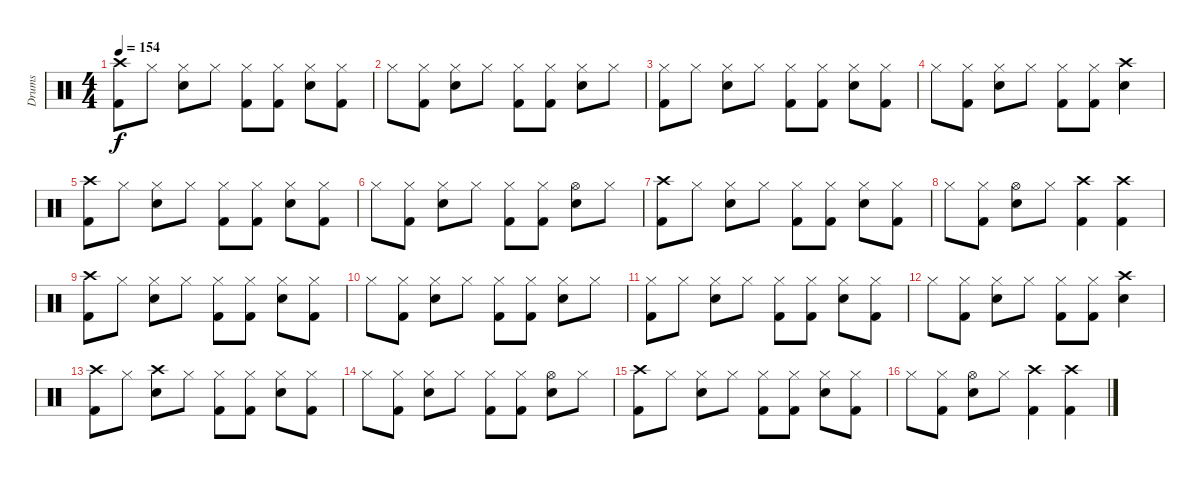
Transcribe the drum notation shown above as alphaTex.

\track ("Drums" "Drums") {instrument percussion}
\staff {score}
\articulation defaults
\ts (4 4)
\tempo 154
\clef neutral
\ks c
("Crash high (hit)" "Kick (hit) 2").8{dy f} "Hi-Hat (closed)".8 ("Hi-Hat (closed)" "Snare (hit) 2").8 "Hi-Hat (closed)".8 ("Hi-Hat (closed)" "Kick (hit) 2").8 ("Hi-Hat (closed)" "Kick (hit) 2").8 ("Hi-Hat (closed)" "Snare (hit) 2").8 ("Hi-Hat (closed)" "Kick (hit) 2").8 |
"Hi-Hat (closed)".8 ("Hi-Hat (closed)" "Kick (hit) 2").8 ("Hi-Hat (closed)" "Snare (hit) 2").8 "Hi-Hat (closed)".8 ("Hi-Hat (closed)" "Kick (hit) 2").8 ("Hi-Hat (closed)" "Kick (hit) 2").8 ("Hi-Hat (closed)" "Snare (hit) 2").8 "Hi-Hat (closed)".8 |
("Hi-Hat (closed)" "Kick (hit) 2").8 "Hi-Hat (closed)".8 ("Hi-Hat (closed)" "Snare (hit) 2").8 "Hi-Hat (closed)".8 ("Hi-Hat (closed)" "Kick (hit) 2").8 ("Hi-Hat (closed)" "Kick (hit) 2").8 ("Hi-Hat (closed)" "Snare (hit) 2").8 ("Hi-Hat (closed)" "Kick (hit) 2").8 |
"Hi-Hat (closed)".8 ("Hi-Hat (closed)" "Kick (hit) 2").8 ("Hi-Hat (closed)" "Snare (hit) 2").8 "Hi-Hat (closed)".8 ("Hi-Hat (closed)" "Kick (hit) 2").8 ("Hi-Hat (closed)" "Kick (hit) 2").8 ("Crash high (hit)" "Snare (hit) 2").4 |
("Crash high (hit)" "Kick (hit) 2").8 "Hi-Hat (closed)".8 ("Hi-Hat (closed)" "Snare (hit) 2").8 "Hi-Hat (closed)".8 ("Hi-Hat (closed)" "Kick (hit) 2").8 ("Hi-Hat (closed)" "Kick (hit) 2").8 ("Hi-Hat (closed)" "Snare (hit) 2").8 ("Hi-Hat (closed)" "Kick (hit) 2").8 |
"Hi-Hat (closed)".8 ("Hi-Hat (closed)" "Kick (hit) 2").8 ("Hi-Hat (closed)" "Snare (hit) 2").8 "Hi-Hat (closed)".8 ("Hi-Hat (closed)" "Kick (hit) 2").8 ("Hi-Hat (closed)" "Kick (hit) 2").8 ("Hi-Hat (open)" "Snare (hit) 2").8 "Hi-Hat (closed)".8 |
("Crash high (hit)" "Kick (hit) 2").8 "Hi-Hat (closed)".8 ("Hi-Hat (closed)" "Snare (hit) 2").8 "Hi-Hat (closed)".8 ("Hi-Hat (closed)" "Kick (hit) 2").8 ("Hi-Hat (closed)" "Kick (hit) 2").8 ("Hi-Hat (closed)" "Snare (hit) 2").8 ("Hi-Hat (closed)" "Kick (hit) 2").8 |
"Hi-Hat (closed)".8 ("Hi-Hat (closed)" "Kick (hit) 2").8 ("Hi-Hat (open)" "Snare (hit) 2").8 "Hi-Hat (closed)".8 ("Crash high (hit)" "Kick (hit) 2").4 ("Crash high (hit)" "Kick (hit) 2").4 |
("Crash high (hit)" "Kick (hit) 2").8 "Hi-Hat (closed)".8 ("Hi-Hat (closed)" "Snare (hit) 2").8 "Hi-Hat (closed)".8 ("Hi-Hat (closed)" "Kick (hit) 2").8 ("Hi-Hat (closed)" "Kick (hit) 2").8 ("Hi-Hat (closed)" "Snare (hit) 2").8 ("Hi-Hat (closed)" "Kick (hit) 2").8 |
"Hi-Hat (closed)".8 ("Hi-Hat (closed)" "Kick (hit) 2").8 ("Hi-Hat (closed)" "Snare (hit) 2").8 "Hi-Hat (closed)".8 ("Hi-Hat (closed)" "Kick (hit) 2").8 ("Hi-Hat (closed)" "Kick (hit) 2").8 ("Hi-Hat (closed)" "Snare (hit) 2").8 "Hi-Hat (closed)".8 |
("Hi-Hat (closed)" "Kick (hit) 2").8 "Hi-Hat (closed)".8 ("Hi-Hat (closed)" "Snare (hit) 2").8 "Hi-Hat (closed)".8 ("Hi-Hat (closed)" "Kick (hit) 2").8 ("Hi-Hat (closed)" "Kick (hit) 2").8 ("Hi-Hat (closed)" "Snare (hit) 2").8 ("Hi-Hat (closed)" "Kick (hit) 2").8 |
"Hi-Hat (closed)".8 ("Hi-Hat (closed)" "Kick (hit) 2").8 ("Hi-Hat (closed)" "Snare (hit) 2").8 "Hi-Hat (closed)".8 ("Hi-Hat (closed)" "Kick (hit) 2").8 ("Hi-Hat (closed)" "Kick (hit) 2").8 ("Crash high (hit)" "Snare (hit) 2").4 |
("Crash high (hit)" "Kick (hit) 2").8 "Hi-Hat (closed)".8 ("Crash high (hit)" "Snare (hit) 2").8 "Hi-Hat (closed)".8 ("Hi-Hat (closed)" "Kick (hit) 2").8 ("Hi-Hat (closed)" "Kick (hit) 2").8 ("Hi-Hat (closed)" "Snare (hit) 2").8 ("Hi-Hat (closed)" "Kick (hit) 2").8 |
"Hi-Hat (closed)".8 ("Hi-Hat (closed)" "Kick (hit) 2").8 ("Hi-Hat (closed)" "Snare (hit) 2").8 "Hi-Hat (closed)".8 ("Hi-Hat (closed)" "Kick (hit) 2").8 ("Hi-Hat (closed)" "Kick (hit) 2").8 ("Hi-Hat (open)" "Snare (hit) 2").8 "Hi-Hat (closed)".8 |
("Crash high (hit)" "Kick (hit) 2").8 "Hi-Hat (closed)".8 ("Hi-Hat (closed)" "Snare (hit) 2").8 "Hi-Hat (closed)".8 ("Hi-Hat (closed)" "Kick (hit) 2").8 ("Hi-Hat (closed)" "Kick (hit) 2").8 ("Hi-Hat (closed)" "Snare (hit) 2").8 ("Hi-Hat (closed)" "Kick (hit) 2").8 |
"Hi-Hat (closed)".8 ("Hi-Hat (closed)" "Kick (hit) 2").8 ("Hi-Hat (open)" "Snare (hit) 2").8 "Hi-Hat (closed)".8 ("Crash high (hit)" "Kick (hit) 2").4 ("Crash high (hit)" "Kick (hit) 2").4
